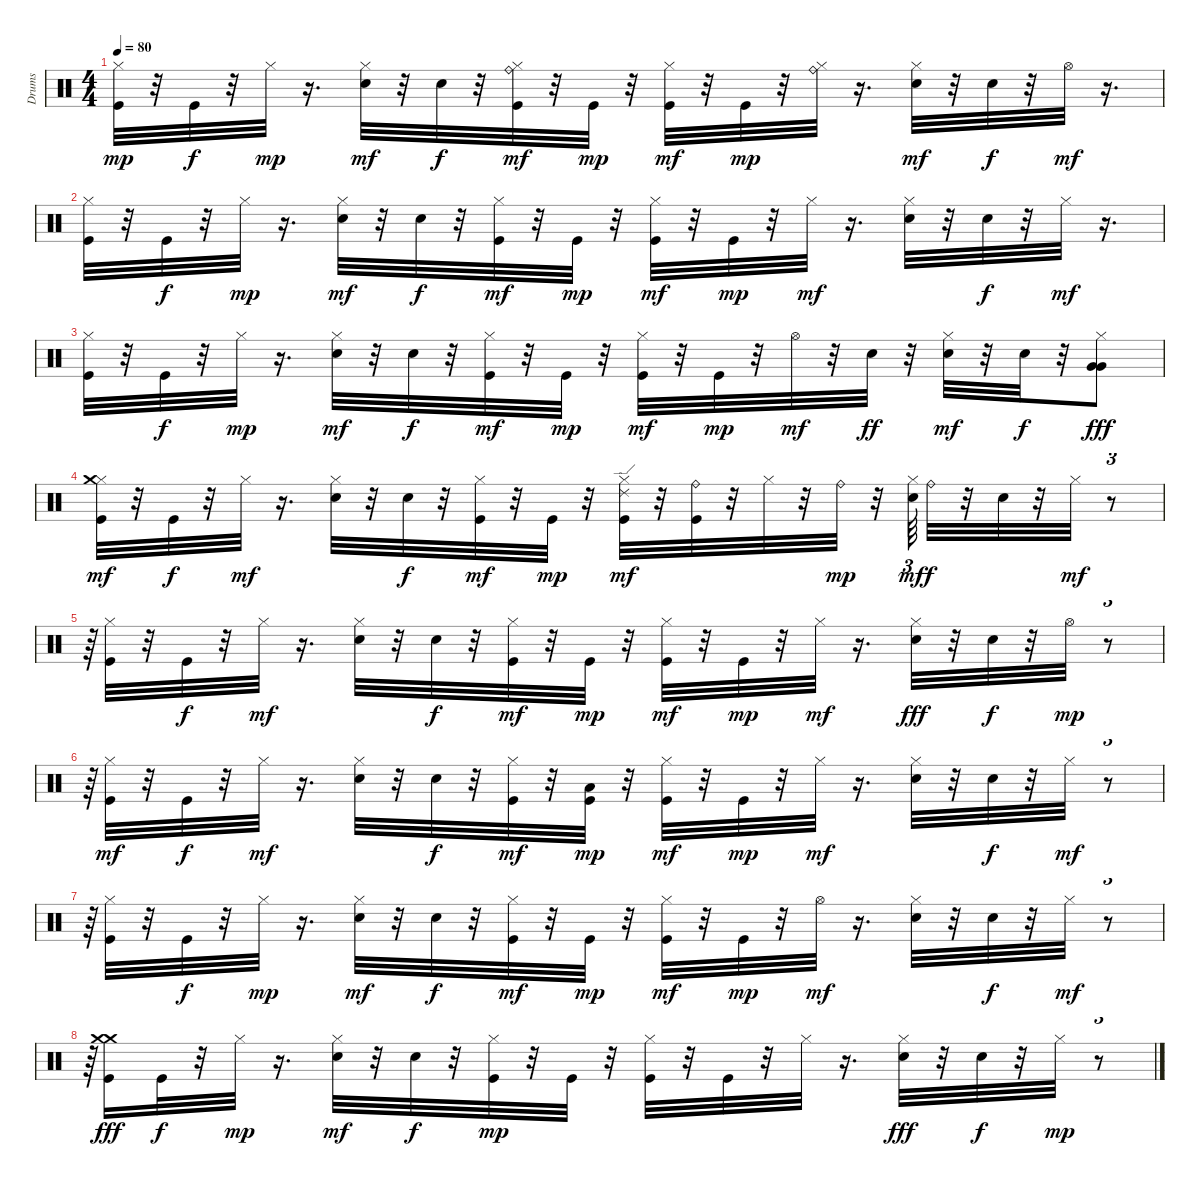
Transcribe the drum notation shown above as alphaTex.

\track ("Drums" "Drums") {instrument percussion}
\staff {score}
\articulation defaults
\ts (4 4)
\tempo 80
\clef neutral
\ks c
("Kick (hit)" "Hi-Hat (closed)").32{dy mp} r.32 "Kick (hit)".32{dy f} r.32 "Hi-Hat (closed)".32{dy mp} r.16{d} ("Snare (hit) 2" "Hi-Hat (closed)").32{dy mf} r.32 "Snare (hit) 2".32{dy f} r.32 ("Kick (hit)" "Hi-Hat (closed)" "Ride (bell)").32{dy mf} r.32 "Kick (hit)".32{dy mp} r.32 ("Kick (hit)" "Hi-Hat (closed)").32{dy mf} r.32 "Kick (hit)".32{dy mp} r.32 ("Ride (bell)" "Hi-Hat (closed)").32 r.16{d} ("Snare (hit) 2" "Hi-Hat (closed)").32{dy mf} r.32 "Snare (hit) 2".32{dy f} r.32 "Hi-Hat (open)".32{dy mf} r.16{d} |
("Kick (hit)" "Hi-Hat (closed)").32 r.32 "Kick (hit)".32{dy f} r.32 "Hi-Hat (closed)".32{dy mp} r.16{d} ("Snare (hit) 2" "Hi-Hat (closed)").32{dy mf} r.32 "Snare (hit) 2".32{dy f} r.32 ("Kick (hit)" "Hi-Hat (closed)").32{dy mf} r.32 "Kick (hit)".32{dy mp} r.32 ("Kick (hit)" "Hi-Hat (closed)").32{dy mf} r.32 "Kick (hit)".32{dy mp} r.32 "Hi-Hat (closed)".32{dy mf} r.16{d} ("Snare (hit) 2" "Hi-Hat (closed)").32 r.32 "Snare (hit) 2".32{dy f} r.32 "Hi-Hat (closed)".32{dy mf} r.16{d} |
("Kick (hit)" "Hi-Hat (closed)").32 r.32 "Kick (hit)".32{dy f} r.32 "Hi-Hat (closed)".32{dy mp} r.16{d} ("Snare (hit) 2" "Hi-Hat (closed)").32{dy mf} r.32 "Snare (hit) 2".32{dy f} r.32 ("Kick (hit)" "Hi-Hat (closed)").32{dy mf} r.32 "Kick (hit)".32{dy mp} r.32 ("Kick (hit)" "Hi-Hat (closed)").32{dy mf} r.32 "Kick (hit)".32{dy mp} r.32 "Hi-Hat (open)".32{dy mf} r.32 "Snare (hit) 2".32{dy ff} r.32 ("Snare (hit) 2" "Hi-Hat (closed)").32{dy mf} r.32 "Snare (hit) 2".32{dy f} r.32 ("Very Low Tom (hit)" "Hi-Hat (closed)" "Very Low Tom (hit)").8{dy fff} |
("Kick (hit)" "Hi-Hat (closed)" "Crash medium (hit)").32{dy mf} r.32 "Kick (hit)".32{dy f} r.32 "Hi-Hat (closed)".32{dy mf} r.16{d} ("Snare (hit) 2" "Hi-Hat (closed)").32 r.32 "Snare (hit) 2".32{dy f} r.32 ("Kick (hit)" "Hi-Hat (closed)").32{dy mf} r.32 "Kick (hit)".32{dy mp} r.32 ("Kick (hit)" "Hi-Hat (closed)" "Ride (edge) 2").32{dy mf} r.32 ("Kick (hit)" "Ride (bell)").32 r.32 "Hi-Hat (closed)".32 r.32 "Ride (bell)".32{dy mp} r.32 ("Snare (hit) 2" "Hi-Hat (closed)").64{tu (3 2) dy mf} "Ride (bell)".32{dy f} r.32 "Snare (hit) 2".32 r.32 "Hi-Hat (closed)".32{dy mf} r.8{tu (3 2)} |
r.64{tu (3 2)} ("Kick (hit)" "Hi-Hat (closed)").32 r.32 "Kick (hit)".32{dy f} r.32 "Hi-Hat (closed)".32{dy mf} r.16{d} ("Snare (hit) 2" "Hi-Hat (closed)").32 r.32 "Snare (hit) 2".32{dy f} r.32 ("Kick (hit)" "Hi-Hat (closed)").32{dy mf} r.32 "Kick (hit)".32{dy mp} r.32 ("Kick (hit)" "Hi-Hat (closed)").32{dy mf} r.32 "Kick (hit)".32{dy mp} r.32 "Hi-Hat (closed)".32{dy mf} r.16{d} ("Snare (hit) 2" "Hi-Hat (closed)").32{dy fff} r.32 "Snare (hit) 2".32{dy f} r.32 "Hi-Hat (open)".32{dy mp} r.8{tu (3 2)} |
r.64{tu (3 2)} ("Kick (hit)" "Hi-Hat (closed)").32{dy mf} r.32 "Kick (hit)".32{dy f} r.32 "Hi-Hat (closed)".32{dy mf} r.16{d} ("Snare (hit) 2" "Hi-Hat (closed)").32 r.32 "Snare (hit) 2".32{dy f} r.32 ("Kick (hit)" "Hi-Hat (closed)").32{dy mf} r.32 ("Kick (hit)" "Low Tom (hit)").32{dy mp} r.32 ("Kick (hit)" "Hi-Hat (closed)").32{dy mf} r.32 "Kick (hit)".32{dy mp} r.32 "Hi-Hat (closed)".32{dy mf} r.16{d} ("Snare (hit) 2" "Hi-Hat (closed)").32 r.32 "Snare (hit) 2".32{dy f} r.32 "Hi-Hat (closed)".32{dy mf} r.8{tu (3 2)} |
r.64{tu (3 2)} ("Kick (hit)" "Hi-Hat (closed)").32 r.32 "Kick (hit)".32{dy f} r.32 "Hi-Hat (closed)".32{dy mp} r.16{d} ("Snare (hit) 2" "Hi-Hat (closed)").32{dy mf} r.32 "Snare (hit) 2".32{dy f} r.32 ("Kick (hit)" "Hi-Hat (closed)").32{dy mf} r.32 "Kick (hit)".32{dy mp} r.32 ("Kick (hit)" "Hi-Hat (closed)").32{dy mf} r.32 "Kick (hit)".32{dy mp} r.32 "Hi-Hat (open)".32{dy mf} r.16{d} ("Snare (hit) 2" "Hi-Hat (closed)").32 r.32 "Snare (hit) 2".32{dy f} r.32 "Hi-Hat (closed)".32{dy mf} r.8{tu (3 2)} |
r.64{tu (3 2)} ("Kick (hit)" "Crash medium (hit)" "Crash medium (hit)").16{dy fff} "Kick (hit)".32{dy f} r.32 "Hi-Hat (closed)".32{dy mp} r.16{d} ("Snare (hit) 2" "Hi-Hat (closed)").32{dy mf} r.32 "Snare (hit) 2".32{dy f} r.32 ("Kick (hit)" "Hi-Hat (closed)").32{dy mp} r.32 "Kick (hit)".32 r.32 ("Kick (hit)" "Hi-Hat (closed)").32 r.32 "Kick (hit)".32 r.32 "Hi-Hat (closed)".32 r.16{d} ("Snare (hit) 2" "Hi-Hat (closed)").32{dy fff} r.32 "Snare (hit) 2".32{dy f} r.32 "Hi-Hat (closed)".32{dy mp} r.8{tu (3 2)}
